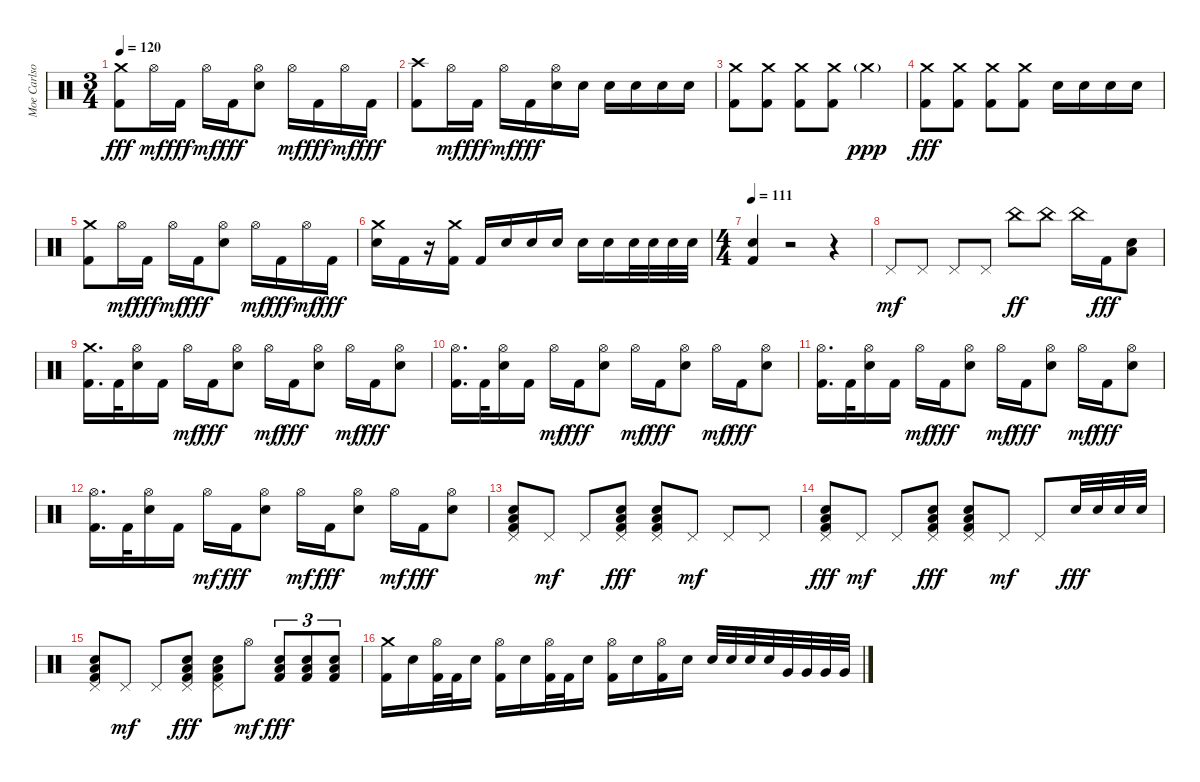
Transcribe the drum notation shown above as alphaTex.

\track ("Moe Carlson" "Moe Carlso") {instrument percussion}
\staff {score}
\articulation defaults
\ts (3 4)
\tempo 120
\clef neutral
\ks c
("Crash medium (hit)" "Kick (hit) 2").8{dy fff} "Hi-Hat (open)".16{dy mf} "Kick (hit) 2".16{dy fff} "Hi-Hat (open)".16{dy mf} "Kick (hit) 2".16{dy fff} ("Hi-Hat (open)" "Electric Snare (hit)").8 "Hi-Hat (open)".16{dy mf} "Kick (hit) 2".16{dy fff} "Hi-Hat (open)".16{dy mf} "Kick (hit) 2".16{dy fff} |
("Crash high (hit)" "Kick (hit) 2").8 "Hi-Hat (open)".16{dy mf} "Kick (hit) 2".16{dy fff} "Hi-Hat (open)".16{dy mf} "Kick (hit) 2".16{dy fff} ("Hi-Hat (open)" "Electric Snare (hit)").16 "Electric Snare (hit)".16 "Electric Snare (hit)".16 "Electric Snare (hit)".16 "Electric Snare (hit)".16 "Electric Snare (hit)".16 |
("Crash medium (hit)" "Kick (hit) 2").8 ("Crash medium (hit)" "Kick (hit) 2").8 ("Crash medium (hit)" "Kick (hit) 2").8 ("Crash medium (hit)" "Kick (hit) 2").8 "Crash medium (hit)"{g}.4{dy ppp} |
("Crash medium (hit)" "Kick (hit) 2").8{dy fff} ("Crash medium (hit)" "Kick (hit) 2").8 ("Crash medium (hit)" "Kick (hit) 2").8 ("Crash medium (hit)" "Kick (hit) 2").8 "Electric Snare (hit)".16 "Electric Snare (hit)".16 "Electric Snare (hit)".16 "Electric Snare (hit)".16 |
("Crash medium (hit)" "Kick (hit) 2").8 "Hi-Hat (open)".16{dy mf} "Kick (hit) 2".16{dy fff} "Hi-Hat (open)".16{dy mf} "Kick (hit) 2".16{dy fff} ("Hi-Hat (open)" "Electric Snare (hit)").8 "Hi-Hat (open)".16{dy mf} "Kick (hit) 2".16{dy fff} "Hi-Hat (open)".16{dy mf} "Kick (hit) 2".16{dy fff} |
("Crash medium (hit)" "Electric Snare (hit)").16 "Kick (hit) 2".16 r.16 ("Crash medium (hit)" "Kick (hit) 2").16 "Kick (hit) 2".16 "Electric Snare (hit)".16 "Electric Snare (hit)".16 "Electric Snare (hit)".16 "Electric Snare (hit)".16 "Electric Snare (hit)".16 "Electric Snare (hit)".32 "Electric Snare (hit)".32 "Electric Snare (hit)".32 "Electric Snare (hit)".32 |
\ts (4 4)
\tempo 111
("Electric Snare (hit)" "Kick (hit) 2").4 r.2 r.4 |
"Pedal Hi-Hat (hit)".8{dy mf} "Pedal Hi-Hat (hit)".8 "Pedal Hi-Hat (hit)".8 "Pedal Hi-Hat (hit)".8 "China (hit)".8{dy ff} "China (hit)".8 "China (hit)".16 "Kick (hit) 2".16{dy fff} ("Electric Snare (hit)" "Low Floor Tom (hit)").8 |
("Crash medium (hit)" "Kick (hit) 2").16{d} "Kick (hit) 2".32 ("Hi-Hat (open)" "Electric Snare (hit)").16 "Kick (hit) 2".16 "Hi-Hat (open)".16{dy mf} "Kick (hit) 2".16{dy fff} ("Hi-Hat (open)" "Electric Snare (hit)").8 "Hi-Hat (open)".16{dy mf} "Kick (hit) 2".16{dy fff} ("Hi-Hat (open)" "Electric Snare (hit)").8 "Hi-Hat (open)".16{dy mf} "Kick (hit) 2".16{dy fff} ("Hi-Hat (open)" "Electric Snare (hit)").8 |
("Hi-Hat (open)" "Kick (hit) 2").16{d} "Kick (hit) 2".32 ("Hi-Hat (open)" "Electric Snare (hit)").16 "Kick (hit) 2".16 "Hi-Hat (open)".16{dy mf} "Kick (hit) 2".16{dy fff} ("Hi-Hat (open)" "Electric Snare (hit)").8 "Hi-Hat (open)".16{dy mf} "Kick (hit) 2".16{dy fff} ("Hi-Hat (open)" "Electric Snare (hit)").8 "Hi-Hat (open)".16{dy mf} "Kick (hit) 2".16{dy fff} ("Hi-Hat (open)" "Electric Snare (hit)").8 |
("Hi-Hat (open)" "Kick (hit) 2").16{d} "Kick (hit) 2".32 ("Hi-Hat (open)" "Electric Snare (hit)").16 "Kick (hit) 2".16 "Hi-Hat (open)".16{dy mf} "Kick (hit) 2".16{dy fff} ("Hi-Hat (open)" "Electric Snare (hit)").8 "Hi-Hat (open)".16{dy mf} "Kick (hit) 2".16{dy fff} ("Hi-Hat (open)" "Electric Snare (hit)").8 "Hi-Hat (open)".16{dy mf} "Kick (hit) 2".16{dy fff} ("Hi-Hat (open)" "Electric Snare (hit)").8 |
("Hi-Hat (open)" "Kick (hit) 2").16{d} "Kick (hit) 2".32 ("Hi-Hat (open)" "Electric Snare (hit)").16 "Kick (hit) 2".16 "Hi-Hat (open)".16{dy mf} "Kick (hit) 2".16{dy fff} ("Hi-Hat (open)" "Electric Snare (hit)").8 "Hi-Hat (open)".16{dy mf} "Kick (hit) 2".16{dy fff} ("Hi-Hat (open)" "Electric Snare (hit)").8 "Hi-Hat (open)".16{dy mf} "Kick (hit) 2".16{dy fff} ("Hi-Hat (open)" "Electric Snare (hit)").8 |
("Electric Snare (hit)" "Low Floor Tom (hit)" "Pedal Hi-Hat (hit)" "Kick (hit) 2").8 "Pedal Hi-Hat (hit)".8{dy mf} "Pedal Hi-Hat (hit)".8 ("Electric Snare (hit)" "Low Floor Tom (hit)" "Pedal Hi-Hat (hit)" "Kick (hit) 2").8{dy fff} ("Electric Snare (hit)" "Low Floor Tom (hit)" "Pedal Hi-Hat (hit)" "Kick (hit) 2").8 "Pedal Hi-Hat (hit)".8{dy mf} "Pedal Hi-Hat (hit)".8 "Pedal Hi-Hat (hit)".8 |
("Electric Snare (hit)" "Low Floor Tom (hit)" "Pedal Hi-Hat (hit)" "Kick (hit) 2").8{dy fff} "Pedal Hi-Hat (hit)".8{dy mf} "Pedal Hi-Hat (hit)".8 ("Electric Snare (hit)" "Low Floor Tom (hit)" "Pedal Hi-Hat (hit)" "Kick (hit) 2").8{dy fff} ("Electric Snare (hit)" "Low Floor Tom (hit)" "Pedal Hi-Hat (hit)" "Kick (hit) 2").8 "Pedal Hi-Hat (hit)".8{dy mf} "Pedal Hi-Hat (hit)".8 "Electric Snare (hit)".32{dy fff} "Electric Snare (hit)".32 "Electric Snare (hit)".32 "Electric Snare (hit)".32 |
("Electric Snare (hit)" "Low Floor Tom (hit)" "Pedal Hi-Hat (hit)" "Kick (hit) 2").8 "Pedal Hi-Hat (hit)".8{dy mf} "Pedal Hi-Hat (hit)".8 ("Electric Snare (hit)" "Low Floor Tom (hit)" "Pedal Hi-Hat (hit)" "Kick (hit) 2").8{dy fff} ("Electric Snare (hit)" "Low Floor Tom (hit)" "Pedal Hi-Hat (hit)" "Kick (hit) 2").8 "Hi-Hat (open)".8{dy mf} ("Electric Snare (hit)" "Low Floor Tom (hit)" "Kick (hit) 2").8{tu (3 2) dy fff} ("Electric Snare (hit)" "Low Floor Tom (hit)" "Kick (hit) 2").8{tu (3 2)} ("Electric Snare (hit)" "Low Floor Tom (hit)" "Kick (hit) 2").8{tu (3 2)} |
("Crash medium (hit)" "Kick (hit) 2").16 "Electric Snare (hit)".16 ("Hi-Hat (open)" "Kick (hit) 2").32 "Kick (hit) 2".32 "Electric Snare (hit)".16 ("Hi-Hat (open)" "Kick (hit) 2").16 "Electric Snare (hit)".16 ("Hi-Hat (open)" "Kick (hit) 2").32 "Kick (hit) 2".32 "Electric Snare (hit)".16 ("Hi-Hat (open)" "Kick (hit) 2").16 "Electric Snare (hit)".16 ("Hi-Hat (open)" "Kick (hit) 2").16 "Electric Snare (hit)".16 "Electric Snare (hit)".32 "Electric Snare (hit)".32 "Electric Snare (hit)".32 "Electric Snare (hit)".32 "Very Low Tom (hit)".32 "Very Low Tom (hit)".32 "Very Low Tom (hit)".32 "Very Low Tom (hit)".32
